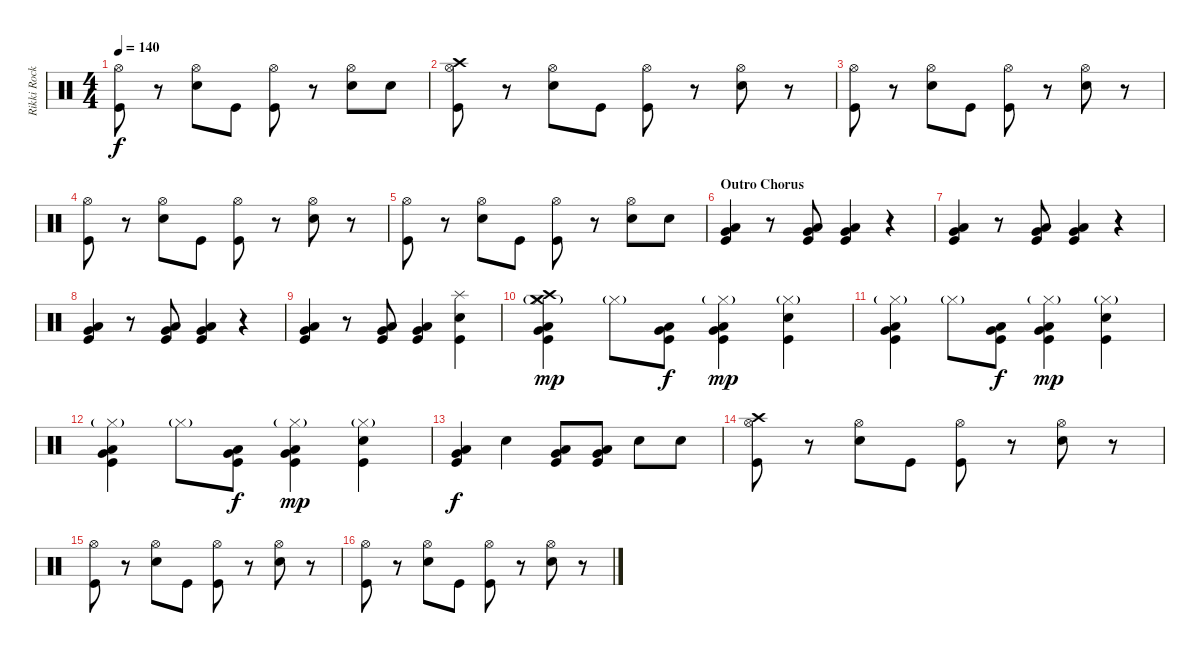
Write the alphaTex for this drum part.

\track ("Rikki Rockett - Drums" "Rikki Rock") {instrument percussion}
\staff {score}
\articulation defaults
\ts (4 4)
\tempo 140
\clef neutral
\ks c
("Hi-Hat (open)" "Kick (hit)").8{dy f} r.8 ("Hi-Hat (open)" "Snare (hit) 2").8 "Kick (hit)".8 ("Hi-Hat (open)" "Kick (hit)").8 r.8 ("Hi-Hat (open)" "Snare (hit) 2").8 "Snare (hit) 2".8 |
("Hi-Hat (open)" "Crash high (hit)" "Kick (hit)").8 r.8 ("Hi-Hat (open)" "Snare (hit) 2").8 "Kick (hit)".8 ("Hi-Hat (open)" "Kick (hit)").8 r.8 ("Hi-Hat (open)" "Snare (hit) 2").8 r.8 |
("Hi-Hat (open)" "Kick (hit)").8 r.8 ("Hi-Hat (open)" "Snare (hit) 2").8 "Kick (hit)".8 ("Hi-Hat (open)" "Kick (hit)").8 r.8 ("Hi-Hat (open)" "Snare (hit) 2").8 r.8 |
("Hi-Hat (open)" "Kick (hit)").8 r.8 ("Hi-Hat (open)" "Snare (hit) 2").8 "Kick (hit)".8 ("Hi-Hat (open)" "Kick (hit)").8 r.8 ("Hi-Hat (open)" "Snare (hit) 2").8 r.8 |
("Hi-Hat (open)" "Kick (hit)").8 r.8 ("Hi-Hat (open)" "Snare (hit) 2").8 "Kick (hit)".8 ("Hi-Hat (open)" "Kick (hit)").8 r.8 ("Hi-Hat (open)" "Snare (hit) 2").8 "Snare (hit) 2".8 |
\section ("" "Outro Chorus")
("Low Tom (hit)" "Very Low Tom (hit)" "Kick (hit)").4 r.8 ("Low Tom (hit)" "Very Low Tom (hit)" "Kick (hit)").8 ("Low Tom (hit)" "Very Low Tom (hit)" "Kick (hit)").4 r.4 |
("Low Tom (hit)" "Very Low Tom (hit)" "Kick (hit)").4 r.8 ("Low Tom (hit)" "Very Low Tom (hit)" "Kick (hit)").8 ("Low Tom (hit)" "Very Low Tom (hit)" "Kick (hit)").4 r.4 |
("Low Tom (hit)" "Very Low Tom (hit)" "Kick (hit)").4 r.8 ("Low Tom (hit)" "Very Low Tom (hit)" "Kick (hit)").8 ("Low Tom (hit)" "Very Low Tom (hit)" "Kick (hit)").4 r.4 |
("Low Tom (hit)" "Very Low Tom (hit)" "Kick (hit)").4 r.8 ("Low Tom (hit)" "Very Low Tom (hit)" "Kick (hit)").8 ("Low Tom (hit)" "Very Low Tom (hit)" "Kick (hit)").4 ("Splash (hit)" "Snare (hit) 2" "Kick (hit)").4 |
("Hi-Hat (closed)"{g} "Crash high (hit)" "Crash medium (hit)" "Low Tom (hit)" "Very Low Tom (hit)" "Kick (hit)").4{dy mp} "Hi-Hat (closed)"{g}.8 ("Low Tom (hit)" "Very Low Tom (hit)" "Kick (hit)").8{dy f} ("Hi-Hat (closed)"{g} "Low Tom (hit)" "Very Low Tom (hit)" "Kick (hit)").4{dy mp} ("Hi-Hat (closed)"{g} "Snare (hit) 2" "Kick (hit)").4 |
("Hi-Hat (closed)"{g} "Low Tom (hit)" "Very Low Tom (hit)" "Kick (hit)").4 "Hi-Hat (closed)"{g}.8 ("Low Tom (hit)" "Very Low Tom (hit)" "Kick (hit)").8{dy f} ("Hi-Hat (closed)"{g} "Low Tom (hit)" "Very Low Tom (hit)" "Kick (hit)").4{dy mp} ("Hi-Hat (closed)"{g} "Snare (hit) 2" "Kick (hit)").4 |
("Hi-Hat (closed)"{g} "Low Tom (hit)" "Very Low Tom (hit)" "Kick (hit)").4 "Hi-Hat (closed)"{g}.8 ("Low Tom (hit)" "Very Low Tom (hit)" "Kick (hit)").8{dy f} ("Hi-Hat (closed)"{g} "Low Tom (hit)" "Very Low Tom (hit)" "Kick (hit)").4{dy mp} ("Hi-Hat (closed)"{g} "Snare (hit) 2" "Kick (hit)").4 |
("Low Floor Tom (hit)" "Very Low Tom (hit)" "Kick (hit)").4{dy f} "Snare (hit) 2".4 ("Low Floor Tom (hit)" "Very Low Tom (hit)" "Kick (hit)").8 ("Low Floor Tom (hit)" "Very Low Tom (hit)" "Kick (hit)").8 "Snare (hit) 2".8 "Snare (hit) 2".8 |
("Hi-Hat (open)" "Crash high (hit)" "Kick (hit)").8 r.8 ("Hi-Hat (open)" "Snare (hit) 2").8 "Kick (hit)".8 ("Hi-Hat (open)" "Kick (hit)").8 r.8 ("Hi-Hat (open)" "Snare (hit) 2").8 r.8 |
("Hi-Hat (open)" "Kick (hit)").8 r.8 ("Hi-Hat (open)" "Snare (hit) 2").8 "Kick (hit)".8 ("Hi-Hat (open)" "Kick (hit)").8 r.8 ("Hi-Hat (open)" "Snare (hit) 2").8 r.8 |
("Hi-Hat (open)" "Kick (hit)").8 r.8 ("Hi-Hat (open)" "Snare (hit) 2").8 "Kick (hit)".8 ("Hi-Hat (open)" "Kick (hit)").8 r.8 ("Hi-Hat (open)" "Snare (hit) 2").8 r.8
